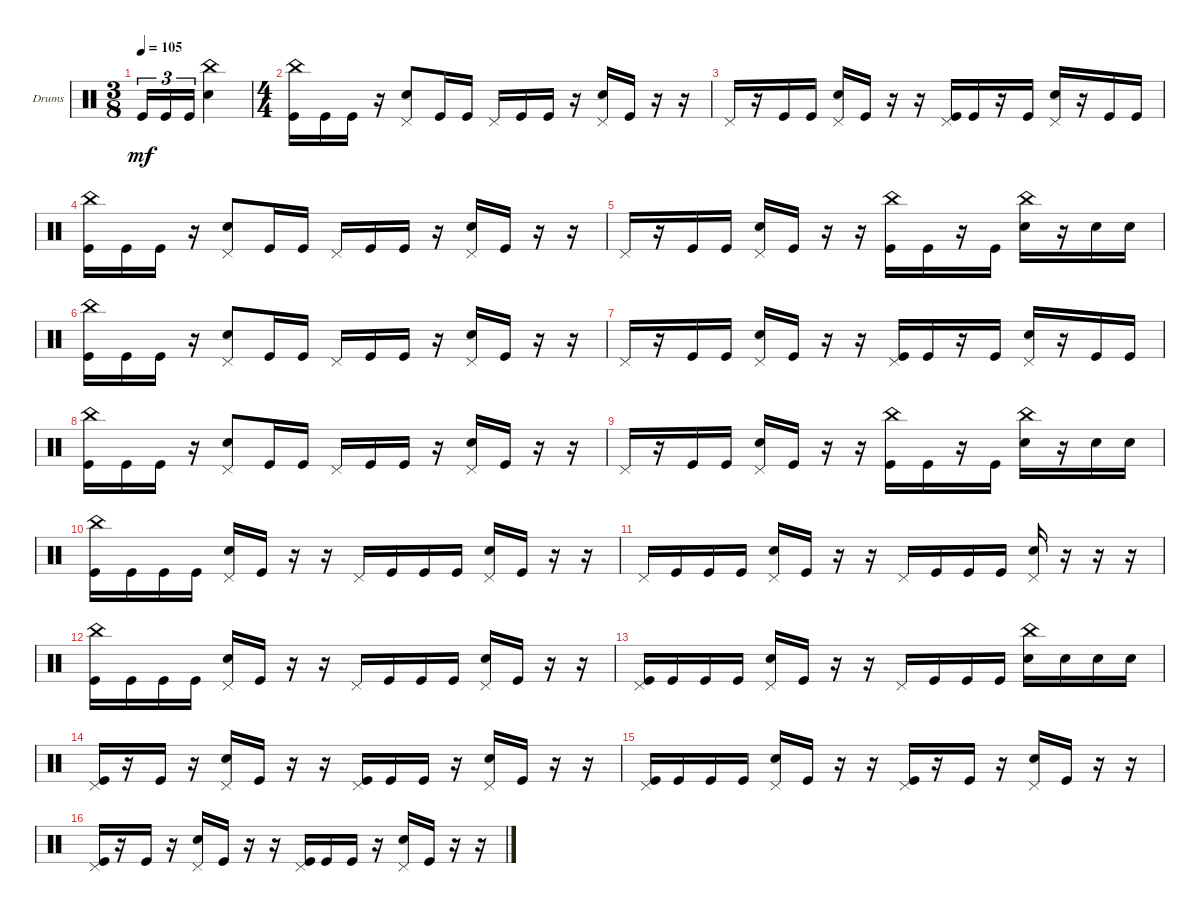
\defaultSystemsLayout 4
\bracketExtendMode groupsimilarinstruments
\firstSystemTrackNameOrientation horizontal
\otherSystemsTrackNameOrientation horizontal
\track ("Drumkit" "Drums") {instrument percussion}
\staff {score}
\articulation defaults
\ts (3 8)
\tempo 105
\clef neutral
\ks c "Kick (hit)".16{tu (3 2) dy mf} "Kick (hit)".16{tu (3 2)} "Kick (hit)".16{tu (3 2)}
("Snare (hit) 2" "China (hit)").4 |
\ts (4 4)
("Kick (hit)" "China (hit)").16 "Kick (hit)".16 "Kick (hit)".16 r.16 ("Pedal Hi-Hat (hit)" "Snare (hit) 2").8 "Kick (hit)".16 "Kick (hit)".16 "Pedal Hi-Hat (hit)".16 "Kick (hit)".16 "Kick (hit)".16 r.16 ("Pedal Hi-Hat (hit)" "Snare (hit) 2").16 "Kick (hit)".16 r.16 r.16 |
"Pedal Hi-Hat (hit)".16 r.16 "Kick (hit)".16 "Kick (hit)".16 ("Snare (hit) 2" "Pedal Hi-Hat (hit)").16 "Kick (hit)".16 r.16 r.16 ("Kick (hit)" "Pedal Hi-Hat (hit)").16 "Kick (hit)".16 r.16 "Kick (hit)".16 ("Snare (hit) 2" "Pedal Hi-Hat (hit)").16 r.16 "Kick (hit)".16 "Kick (hit)".16 |
("Kick (hit)" "China (hit)").16 "Kick (hit)".16 "Kick (hit)".16 r.16 ("Pedal Hi-Hat (hit)" "Snare (hit) 2").8 "Kick (hit)".16 "Kick (hit)".16 "Pedal Hi-Hat (hit)".16 "Kick (hit)".16 "Kick (hit)".16 r.16 ("Pedal Hi-Hat (hit)" "Snare (hit) 2").16 "Kick (hit)".16 r.16 r.16 |
"Pedal Hi-Hat (hit)".16 r.16 "Kick (hit)".16 "Kick (hit)".16 ("Snare (hit) 2" "Pedal Hi-Hat (hit)").16 "Kick (hit)".16 r.16 r.16 ("Kick (hit)" "China (hit)").16 "Kick (hit)".16 r.16 "Kick (hit)".16 ("Snare (hit) 2" "China (hit)").16 r.16 "Snare (hit) 2".16 "Snare (hit) 2".16 |
("Kick (hit)" "China (hit)").16 "Kick (hit)".16 "Kick (hit)".16 r.16 ("Pedal Hi-Hat (hit)" "Snare (hit) 2").8 "Kick (hit)".16 "Kick (hit)".16 "Pedal Hi-Hat (hit)".16 "Kick (hit)".16 "Kick (hit)".16 r.16 ("Pedal Hi-Hat (hit)" "Snare (hit) 2").16 "Kick (hit)".16 r.16 r.16 |
"Pedal Hi-Hat (hit)".16 r.16 "Kick (hit)".16 "Kick (hit)".16 ("Snare (hit) 2" "Pedal Hi-Hat (hit)").16 "Kick (hit)".16 r.16 r.16 ("Kick (hit)" "Pedal Hi-Hat (hit)").16 "Kick (hit)".16 r.16 "Kick (hit)".16 ("Snare (hit) 2" "Pedal Hi-Hat (hit)").16 r.16 "Kick (hit)".16 "Kick (hit)".16 |
("Kick (hit)" "China (hit)").16 "Kick (hit)".16 "Kick (hit)".16 r.16 ("Pedal Hi-Hat (hit)" "Snare (hit) 2").8 "Kick (hit)".16 "Kick (hit)".16 "Pedal Hi-Hat (hit)".16 "Kick (hit)".16 "Kick (hit)".16 r.16 ("Pedal Hi-Hat (hit)" "Snare (hit) 2").16 "Kick (hit)".16 r.16 r.16 |
"Pedal Hi-Hat (hit)".16 r.16 "Kick (hit)".16 "Kick (hit)".16 ("Snare (hit) 2" "Pedal Hi-Hat (hit)").16 "Kick (hit)".16 r.16 r.16 ("Kick (hit)" "China (hit)").16 "Kick (hit)".16 r.16 "Kick (hit)".16 ("Snare (hit) 2" "China (hit)").16 r.16 "Snare (hit) 2".16 "Snare (hit) 2".16 |
("Kick (hit)" "China (hit)").16 "Kick (hit)".16 "Kick (hit)".16 "Kick (hit)".16 ("Snare (hit) 2" "Pedal Hi-Hat (hit)").16 "Kick (hit)".16 r.16 r.16 "Pedal Hi-Hat (hit)".16 "Kick (hit)".16 "Kick (hit)".16 "Kick (hit)".16 ("Snare (hit) 2" "Pedal Hi-Hat (hit)").16 "Kick (hit)".16 r.16 r.16 |
"Pedal Hi-Hat (hit)".16 "Kick (hit)".16 "Kick (hit)".16 "Kick (hit)".16 ("Snare (hit) 2" "Pedal Hi-Hat (hit)").16 "Kick (hit)".16 r.16 r.16 "Pedal Hi-Hat (hit)".16 "Kick (hit)".16 "Kick (hit)".16 "Kick (hit)".16 ("Snare (hit) 2" "Pedal Hi-Hat (hit)").16 r.16 r.16 r.16 |
("Kick (hit)" "China (hit)").16 "Kick (hit)".16 "Kick (hit)".16 "Kick (hit)".16 ("Snare (hit) 2" "Pedal Hi-Hat (hit)").16 "Kick (hit)".16 r.16 r.16 "Pedal Hi-Hat (hit)".16 "Kick (hit)".16 "Kick (hit)".16 "Kick (hit)".16 ("Snare (hit) 2" "Pedal Hi-Hat (hit)").16 "Kick (hit)".16 r.16 r.16 |
("Kick (hit)" "Pedal Hi-Hat (hit)").16 "Kick (hit)".16 "Kick (hit)".16 "Kick (hit)".16 ("Snare (hit) 2" "Pedal Hi-Hat (hit)").16 "Kick (hit)".16 r.16 r.16 "Pedal Hi-Hat (hit)".16 "Kick (hit)".16 "Kick (hit)".16 "Kick (hit)".16 ("Snare (hit) 2" "China (hit)").16 "Snare (hit) 2".16 "Snare (hit) 2".16 "Snare (hit) 2".16 |
("Kick (hit)" "Pedal Hi-Hat (hit)").16 r.16 "Kick (hit)".16 r.16 ("Snare (hit) 2" "Pedal Hi-Hat (hit)").16 "Kick (hit)".16 r.16 r.16 ("Kick (hit)" "Pedal Hi-Hat (hit)").16 "Kick (hit)".16 "Kick (hit)".16 r.16 ("Snare (hit) 2" "Pedal Hi-Hat (hit)").16 "Kick (hit)".16 r.16 r.16 |
("Kick (hit)" "Pedal Hi-Hat (hit)").16 "Kick (hit)".16 "Kick (hit)".16 "Kick (hit)".16 ("Snare (hit) 2" "Pedal Hi-Hat (hit)").16 "Kick (hit)".16 r.16 r.16 ("Kick (hit)" "Pedal Hi-Hat (hit)").16 r.16 "Kick (hit)".16 r.16 ("Pedal Hi-Hat (hit)" "Snare (hit) 2").16 "Kick (hit)".16 r.16 r.16 |
("Kick (hit)" "Pedal Hi-Hat (hit)").16 r.16 "Kick (hit)".16 r.16 ("Snare (hit) 2" "Pedal Hi-Hat (hit)").16 "Kick (hit)".16 r.16 r.16 ("Kick (hit)" "Pedal Hi-Hat (hit)").16 "Kick (hit)".16 "Kick (hit)".16 r.16 ("Snare (hit) 2" "Pedal Hi-Hat (hit)").16 "Kick (hit)".16 r.16 r.16
